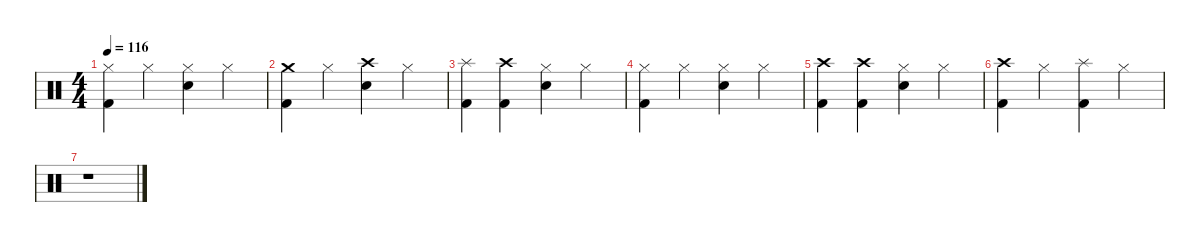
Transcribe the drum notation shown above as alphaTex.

\defaultSystemsLayout 4
\hideDynamics
\bracketExtendMode nobrackets
\singleTrackTrackNamePolicy hidden
\multiTrackTrackNamePolicy hidden
\firstSystemTrackNameMode fullname
\otherSystemsTrackNameOrientation horizontal
\track ("Drums" "drm.") {defaultSystemsLayout 4 instrument percussion}
\staff {score}
\articulation defaults
\ts (4 4)
\tempo 116
\clef neutral
\ks c
("Hi-Hat (closed)" "Kick (hit) 2").4{dy f beam Down} "Hi-Hat (closed)".4{beam Down} ("Hi-Hat (closed)" "Snare (hit) 2").4{beam Down} "Hi-Hat (closed)".4{beam Down} |
("Crash medium (hit)" "Kick (hit) 2").4{beam Down} "Hi-Hat (closed)".4{beam Down} ("Crash high (hit)" "Snare (hit) 2").4{beam Down} "Hi-Hat (closed)".4{beam Down} |
("Splash (hit)" "Kick (hit) 2").4{dy fff beam Down} ("Crash high (hit)" "Kick (hit) 2").4{dy f beam Down} ("Hi-Hat (closed)" "Snare (hit) 2").4{beam Down} "Hi-Hat (closed)".4{beam Down} |
("Hi-Hat (closed)" "Kick (hit) 2").4{beam Down} "Hi-Hat (closed)".4{beam Down} ("Hi-Hat (closed)" "Snare (hit) 2").4{beam Down} "Hi-Hat (closed)".4{beam Down} |
("Crash high (hit)" "Kick (hit) 2").4{beam Down} ("Crash high (hit)" "Kick (hit) 2").4{beam Down} ("Hi-Hat (closed)" "Snare (hit) 2").4{beam Down} "Hi-Hat (closed)".4{beam Down} |
("Crash high (hit)" "Kick (hit) 2").4{beam Down} "Hi-Hat (closed)".4{beam Down} ("Splash (hit)" "Kick (hit) 2").4{dy fff beam Down} "Hi-Hat (closed)".4{dy f beam Down} |
r.1{beam Down}
